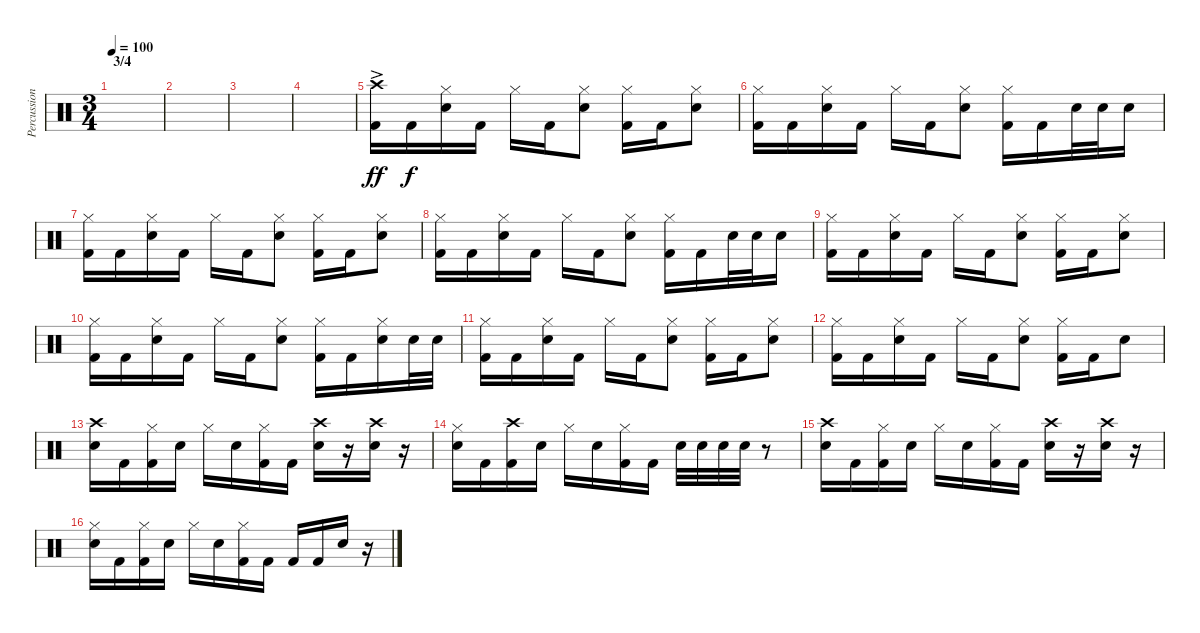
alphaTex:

\track ("Percussion" "Percussion") {instrument percussion}
\staff {score}
\articulation defaults
\ts (3 4)
\section ("" "3/4")
\tempo 100
\clef neutral
\ks c
|
|
|
|
("Crash high (hit)"{ac} "Kick (hit) 2").16{dy ff} "Kick (hit) 2".16{dy f} ("Hi-Hat (closed)" "Snare (hit) 2").16 "Kick (hit) 2".16 "Hi-Hat (closed)".16 "Kick (hit) 2".16 ("Hi-Hat (closed)" "Snare (hit) 2").8 ("Hi-Hat (closed)" "Kick (hit) 2").16 "Kick (hit) 2".16 ("Hi-Hat (closed)" "Snare (hit) 2").8 |
("Hi-Hat (closed)" "Kick (hit) 2").16 "Kick (hit) 2".16 ("Hi-Hat (closed)" "Snare (hit) 2").16 "Kick (hit) 2".16 "Hi-Hat (closed)".16 "Kick (hit) 2".16 ("Hi-Hat (closed)" "Snare (hit) 2").8 ("Hi-Hat (closed)" "Kick (hit) 2").16 "Kick (hit) 2".16 "Snare (hit) 2".32 "Snare (hit) 2".32 "Snare (hit) 2".16 |
("Hi-Hat (closed)" "Kick (hit) 2").16 "Kick (hit) 2".16 ("Hi-Hat (closed)" "Snare (hit) 2").16 "Kick (hit) 2".16 "Hi-Hat (closed)".16 "Kick (hit) 2".16 ("Hi-Hat (closed)" "Snare (hit) 2").8 ("Hi-Hat (closed)" "Kick (hit) 2").16 "Kick (hit) 2".16 ("Hi-Hat (closed)" "Snare (hit) 2").8 |
("Hi-Hat (closed)" "Kick (hit) 2").16 "Kick (hit) 2".16 ("Hi-Hat (closed)" "Snare (hit) 2").16 "Kick (hit) 2".16 "Hi-Hat (closed)".16 "Kick (hit) 2".16 ("Hi-Hat (closed)" "Snare (hit) 2").8 ("Hi-Hat (closed)" "Kick (hit) 2").16 "Kick (hit) 2".16 "Snare (hit) 2".32 "Snare (hit) 2".32 "Snare (hit) 2".16 |
("Hi-Hat (closed)" "Kick (hit) 2").16 "Kick (hit) 2".16 ("Hi-Hat (closed)" "Snare (hit) 2").16 "Kick (hit) 2".16 "Hi-Hat (closed)".16 "Kick (hit) 2".16 ("Hi-Hat (closed)" "Snare (hit) 2").8 ("Hi-Hat (closed)" "Kick (hit) 2").16 "Kick (hit) 2".16 ("Hi-Hat (closed)" "Snare (hit) 2").8 |
("Hi-Hat (closed)" "Kick (hit) 2").16 "Kick (hit) 2".16 ("Hi-Hat (closed)" "Snare (hit) 2").16 "Kick (hit) 2".16 "Hi-Hat (closed)".16 "Kick (hit) 2".16 ("Hi-Hat (closed)" "Snare (hit) 2").8 ("Hi-Hat (closed)" "Kick (hit) 2").16 "Kick (hit) 2".16 ("Hi-Hat (closed)" "Snare (hit) 2").16 "Snare (hit) 2".32 "Snare (hit) 2".32 |
("Hi-Hat (closed)" "Kick (hit) 2").16 "Kick (hit) 2".16 ("Hi-Hat (closed)" "Snare (hit) 2").16 "Kick (hit) 2".16 "Hi-Hat (closed)".16 "Kick (hit) 2".16 ("Hi-Hat (closed)" "Snare (hit) 2").8 ("Hi-Hat (closed)" "Kick (hit) 2").16 "Kick (hit) 2".16 ("Hi-Hat (closed)" "Snare (hit) 2").8 |
("Hi-Hat (closed)" "Kick (hit) 2").16 "Kick (hit) 2".16 ("Hi-Hat (closed)" "Snare (hit) 2").16 "Kick (hit) 2".16 "Hi-Hat (closed)".16 "Kick (hit) 2".16 ("Hi-Hat (closed)" "Snare (hit) 2").8 ("Hi-Hat (closed)" "Kick (hit) 2").16 "Kick (hit) 2".16 "Snare (hit) 2".8 |
("Electric Snare (hit)" "Crash high (hit)").16 "Kick (hit) 2".16 ("Hi-Hat (closed)" "Kick (hit) 2").16 "Electric Snare (hit)".16 "Hi-Hat (closed)".16 "Electric Snare (hit)".16 ("Hi-Hat (closed)" "Kick (hit) 2").16 "Kick (hit) 2".16 ("Electric Snare (hit)" "Crash high (hit)").16 r.16 ("Electric Snare (hit)" "Crash high (hit)").16 r.16 |
("Electric Snare (hit)" "Hi-Hat (closed)").16 "Kick (hit) 2".16 ("Crash high (hit)" "Kick (hit) 2").16 "Electric Snare (hit)".16 "Hi-Hat (closed)".16 "Electric Snare (hit)".16 ("Hi-Hat (closed)" "Kick (hit) 2").16 "Kick (hit) 2".16 "Electric Snare (hit)".32 "Electric Snare (hit)".32 "Electric Snare (hit)".32 "Electric Snare (hit)".32 r.8 |
("Electric Snare (hit)" "Crash high (hit)").16 "Kick (hit) 2".16 ("Hi-Hat (closed)" "Kick (hit) 2").16 "Electric Snare (hit)".16 "Hi-Hat (closed)".16 "Electric Snare (hit)".16 ("Hi-Hat (closed)" "Kick (hit) 2").16 "Kick (hit) 2".16 ("Electric Snare (hit)" "Crash high (hit)").16 r.16 ("Electric Snare (hit)" "Crash high (hit)").16 r.16 |
("Electric Snare (hit)" "Hi-Hat (closed)").16 "Kick (hit) 2".16 ("Hi-Hat (closed)" "Kick (hit) 2").16 "Electric Snare (hit)".16 "Hi-Hat (closed)".16 "Electric Snare (hit)".16 ("Hi-Hat (closed)" "Kick (hit) 2").16 "Kick (hit) 2".16 "Kick (hit) 2".16 "Kick (hit) 2".16 "Electric Snare (hit)".16 r.16
